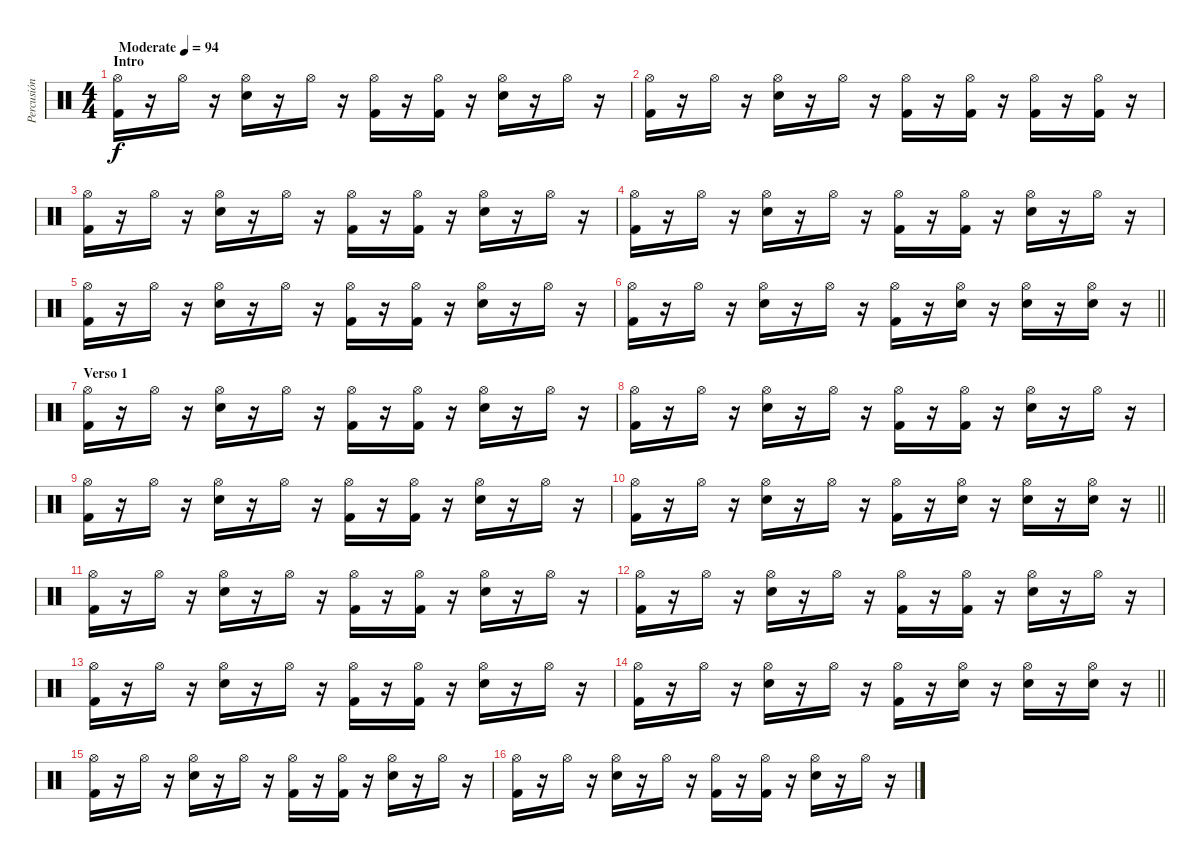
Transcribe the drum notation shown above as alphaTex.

\track ("Percusión" "Percusión") {instrument percussion}
\staff {score}
\articulation defaults
\ts (4 4)
\section ("" "Intro")
\tempo (94 "Moderate")
\clef neutral
\ks c
("Hi-Hat (open)" "Kick (hit) 2").16{dy f} r.16 "Hi-Hat (open)".16 r.16 ("Hi-Hat (open)" "Electric Snare (hit)").16 r.16 "Hi-Hat (open)".16 r.16 ("Hi-Hat (open)" "Kick (hit) 2").16 r.16 ("Hi-Hat (open)" "Kick (hit) 2").16 r.16 ("Hi-Hat (open)" "Electric Snare (hit)").16 r.16 "Hi-Hat (open)".16 r.16 |
("Hi-Hat (open)" "Kick (hit) 2").16 r.16 "Hi-Hat (open)".16 r.16 ("Hi-Hat (open)" "Electric Snare (hit)").16 r.16 "Hi-Hat (open)".16 r.16 ("Hi-Hat (open)" "Kick (hit) 2").16 r.16 ("Hi-Hat (open)" "Kick (hit) 2").16 r.16 ("Hi-Hat (open)" "Kick (hit) 2").16 r.16 ("Hi-Hat (open)" "Kick (hit) 2").16 r.16 |
("Hi-Hat (open)" "Kick (hit) 2").16 r.16 "Hi-Hat (open)".16 r.16 ("Hi-Hat (open)" "Electric Snare (hit)").16 r.16 "Hi-Hat (open)".16 r.16 ("Hi-Hat (open)" "Kick (hit) 2").16 r.16 ("Hi-Hat (open)" "Kick (hit) 2").16 r.16 ("Hi-Hat (open)" "Electric Snare (hit)").16 r.16 "Hi-Hat (open)".16 r.16 |
("Hi-Hat (open)" "Kick (hit) 2").16 r.16 "Hi-Hat (open)".16 r.16 ("Hi-Hat (open)" "Electric Snare (hit)").16 r.16 "Hi-Hat (open)".16 r.16 ("Hi-Hat (open)" "Kick (hit) 2").16 r.16 ("Hi-Hat (open)" "Kick (hit) 2").16 r.16 ("Hi-Hat (open)" "Electric Snare (hit)").16 r.16 "Hi-Hat (open)".16 r.16 |
("Hi-Hat (open)" "Kick (hit) 2").16 r.16 "Hi-Hat (open)".16 r.16 ("Hi-Hat (open)" "Electric Snare (hit)").16 r.16 "Hi-Hat (open)".16 r.16 ("Hi-Hat (open)" "Kick (hit) 2").16 r.16 ("Hi-Hat (open)" "Kick (hit) 2").16 r.16 ("Hi-Hat (open)" "Electric Snare (hit)").16 r.16 "Hi-Hat (open)".16 r.16 |
\barLineRight lightlight
("Hi-Hat (open)" "Kick (hit) 2").16 r.16 "Hi-Hat (open)".16 r.16 ("Hi-Hat (open)" "Electric Snare (hit)").16 r.16 "Hi-Hat (open)".16 r.16 ("Hi-Hat (open)" "Kick (hit) 2").16 r.16 ("Hi-Hat (open)" "Electric Snare (hit)").16 r.16 ("Hi-Hat (open)" "Electric Snare (hit)").16 r.16 ("Hi-Hat (open)" "Electric Snare (hit)").16 r.16 |
\section ("" "Verso 1")
("Hi-Hat (open)" "Kick (hit) 2").16 r.16 "Hi-Hat (open)".16 r.16 ("Hi-Hat (open)" "Electric Snare (hit)").16 r.16 "Hi-Hat (open)".16 r.16 ("Hi-Hat (open)" "Kick (hit) 2").16 r.16 ("Hi-Hat (open)" "Kick (hit) 2").16 r.16 ("Hi-Hat (open)" "Electric Snare (hit)").16 r.16 "Hi-Hat (open)".16 r.16 |
("Hi-Hat (open)" "Kick (hit) 2").16 r.16 "Hi-Hat (open)".16 r.16 ("Hi-Hat (open)" "Electric Snare (hit)").16 r.16 "Hi-Hat (open)".16 r.16 ("Hi-Hat (open)" "Kick (hit) 2").16 r.16 ("Hi-Hat (open)" "Kick (hit) 2").16 r.16 ("Hi-Hat (open)" "Electric Snare (hit)").16 r.16 "Hi-Hat (open)".16 r.16 |
("Hi-Hat (open)" "Kick (hit) 2").16 r.16 "Hi-Hat (open)".16 r.16 ("Hi-Hat (open)" "Electric Snare (hit)").16 r.16 "Hi-Hat (open)".16 r.16 ("Hi-Hat (open)" "Kick (hit) 2").16 r.16 ("Hi-Hat (open)" "Kick (hit) 2").16 r.16 ("Hi-Hat (open)" "Electric Snare (hit)").16 r.16 "Hi-Hat (open)".16 r.16 |
\barLineRight lightlight
("Hi-Hat (open)" "Kick (hit) 2").16 r.16 "Hi-Hat (open)".16 r.16 ("Hi-Hat (open)" "Electric Snare (hit)").16 r.16 "Hi-Hat (open)".16 r.16 ("Hi-Hat (open)" "Kick (hit) 2").16 r.16 ("Hi-Hat (open)" "Electric Snare (hit)").16 r.16 ("Hi-Hat (open)" "Electric Snare (hit)").16 r.16 ("Hi-Hat (open)" "Electric Snare (hit)").16 r.16 |
("Hi-Hat (open)" "Kick (hit) 2").16 r.16 "Hi-Hat (open)".16 r.16 ("Hi-Hat (open)" "Electric Snare (hit)").16 r.16 "Hi-Hat (open)".16 r.16 ("Hi-Hat (open)" "Kick (hit) 2").16 r.16 ("Hi-Hat (open)" "Kick (hit) 2").16 r.16 ("Hi-Hat (open)" "Electric Snare (hit)").16 r.16 "Hi-Hat (open)".16 r.16 |
("Hi-Hat (open)" "Kick (hit) 2").16 r.16 "Hi-Hat (open)".16 r.16 ("Hi-Hat (open)" "Electric Snare (hit)").16 r.16 "Hi-Hat (open)".16 r.16 ("Hi-Hat (open)" "Kick (hit) 2").16 r.16 ("Hi-Hat (open)" "Kick (hit) 2").16 r.16 ("Hi-Hat (open)" "Electric Snare (hit)").16 r.16 "Hi-Hat (open)".16 r.16 |
("Hi-Hat (open)" "Kick (hit) 2").16 r.16 "Hi-Hat (open)".16 r.16 ("Hi-Hat (open)" "Electric Snare (hit)").16 r.16 "Hi-Hat (open)".16 r.16 ("Hi-Hat (open)" "Kick (hit) 2").16 r.16 ("Hi-Hat (open)" "Kick (hit) 2").16 r.16 ("Hi-Hat (open)" "Electric Snare (hit)").16 r.16 "Hi-Hat (open)".16 r.16 |
\barLineRight lightlight
("Hi-Hat (open)" "Kick (hit) 2").16 r.16 "Hi-Hat (open)".16 r.16 ("Hi-Hat (open)" "Electric Snare (hit)").16 r.16 "Hi-Hat (open)".16 r.16 ("Hi-Hat (open)" "Kick (hit) 2").16 r.16 ("Hi-Hat (open)" "Electric Snare (hit)").16 r.16 ("Hi-Hat (open)" "Electric Snare (hit)").16 r.16 ("Hi-Hat (open)" "Electric Snare (hit)").16 r.16 |
("Hi-Hat (open)" "Kick (hit) 2").16 r.16 "Hi-Hat (open)".16 r.16 ("Hi-Hat (open)" "Electric Snare (hit)").16 r.16 "Hi-Hat (open)".16 r.16 ("Hi-Hat (open)" "Kick (hit) 2").16 r.16 ("Hi-Hat (open)" "Kick (hit) 2").16 r.16 ("Hi-Hat (open)" "Electric Snare (hit)").16 r.16 "Hi-Hat (open)".16 r.16 |
("Hi-Hat (open)" "Kick (hit) 2").16 r.16 "Hi-Hat (open)".16 r.16 ("Hi-Hat (open)" "Electric Snare (hit)").16 r.16 "Hi-Hat (open)".16 r.16 ("Hi-Hat (open)" "Kick (hit) 2").16 r.16 ("Hi-Hat (open)" "Kick (hit) 2").16 r.16 ("Hi-Hat (open)" "Electric Snare (hit)").16 r.16 "Hi-Hat (open)".16 r.16
